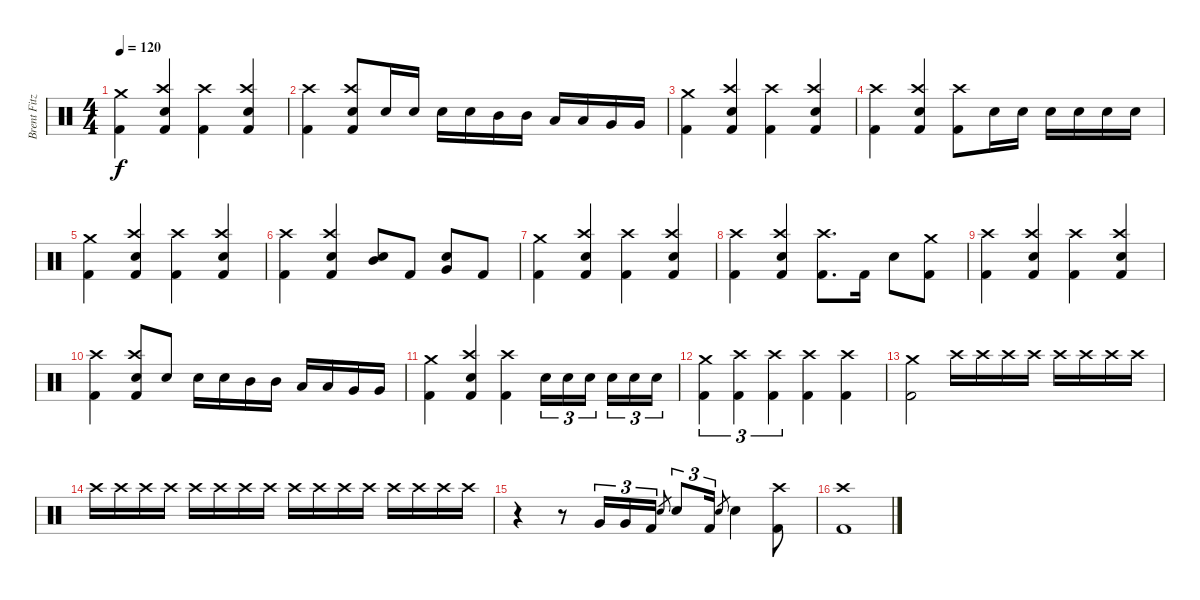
\track ("Brent Fitz" "Brent Fitz") {instrument percussion}
\staff {score}
\articulation defaults
\ts (4 4)
\tempo 120
\clef neutral
\ks c
("Crash medium (hit)" "Kick (hit) 2").4{dy f} ("Crash high (hit)" "Electric Snare (hit)" "Kick (hit) 2").4 ("Crash high (hit)" "Kick (hit) 2").4 ("Crash high (hit)" "Electric Snare (hit)" "Kick (hit) 2").4 |
("Crash high (hit)" "Kick (hit) 2").4 ("Crash high (hit)" "Electric Snare (hit)" "Kick (hit) 2").8 "Electric Snare (hit)".16 "Electric Snare (hit)".16 "Electric Snare (hit)".16 "Electric Snare (hit)".16 "Mid Tom (hit)".16 "Mid Tom (hit)".16 "Low Tom (hit)".16 "Low Tom (hit)".16 "Very Low Tom (hit)".16 "Very Low Tom (hit)".16 |
("Crash medium (hit)" "Kick (hit) 2").4 ("Crash high (hit)" "Electric Snare (hit)" "Kick (hit) 2").4 ("Crash high (hit)" "Kick (hit) 2").4 ("Crash high (hit)" "Electric Snare (hit)" "Kick (hit) 2").4 |
("Crash high (hit)" "Kick (hit) 2").4 ("Crash high (hit)" "Electric Snare (hit)" "Kick (hit) 2").4 ("Crash high (hit)" "Kick (hit) 2").8 "Electric Snare (hit)".16 "Electric Snare (hit)".16 "Electric Snare (hit)".16 "Electric Snare (hit)".16 "Electric Snare (hit)".16 "Electric Snare (hit)".16 |
("Crash medium (hit)" "Kick (hit) 2").4 ("Crash high (hit)" "Electric Snare (hit)" "Kick (hit) 2").4 ("Crash high (hit)" "Kick (hit) 2").4 ("Crash high (hit)" "Electric Snare (hit)" "Kick (hit) 2").4 |
("Crash high (hit)" "Kick (hit) 2").4 ("Crash high (hit)" "Electric Snare (hit)" "Kick (hit) 2").4 ("Mid Tom (hit)" "Electric Snare (hit)").8 "Kick (hit) 2".8 ("Electric Snare (hit)" "Very Low Tom (hit)").8 "Kick (hit) 2".8 |
("Crash medium (hit)" "Kick (hit) 2").4 ("Crash high (hit)" "Electric Snare (hit)" "Kick (hit) 2").4 ("Crash high (hit)" "Kick (hit) 2").4 ("Crash high (hit)" "Electric Snare (hit)" "Kick (hit) 2").4 |
("Crash high (hit)" "Kick (hit) 2").4 ("Crash high (hit)" "Electric Snare (hit)" "Kick (hit) 2").4 ("Crash high (hit)" "Kick (hit) 2").8{d} "Kick (hit) 2".16 "Electric Snare (hit)".8 ("Crash medium (hit)" "Kick (hit) 2").8 |
("Crash high (hit)" "Kick (hit) 2").4 ("Crash high (hit)" "Electric Snare (hit)" "Kick (hit) 2").4 ("Crash high (hit)" "Kick (hit) 2").4 ("Crash high (hit)" "Electric Snare (hit)" "Kick (hit) 2").4 |
("Crash high (hit)" "Kick (hit) 2").4 ("Crash high (hit)" "Electric Snare (hit)" "Kick (hit) 2").8 "Electric Snare (hit)".8 "Electric Snare (hit)".16 "Electric Snare (hit)".16 "Mid Tom (hit)".16 "Mid Tom (hit)".16 "Low Tom (hit)".16 "Low Tom (hit)".16 "Very Low Tom (hit)".16 "Very Low Tom (hit)".16 |
("Crash medium (hit)" "Kick (hit) 2").4 ("Crash high (hit)" "Electric Snare (hit)" "Kick (hit) 2").4 ("Crash high (hit)" "Kick (hit) 2").4 "Electric Snare (hit)".16{tu (3 2)} "Electric Snare (hit)".16{tu (3 2)} "Electric Snare (hit)".16{tu (3 2) beam splitsecondary} "Electric Snare (hit)".16{tu (3 2)} "Electric Snare (hit)".16{tu (3 2)} "Electric Snare (hit)".16{tu (3 2)} |
("Crash medium (hit)" "Kick (hit) 2").4{tu (3 2)} ("Crash high (hit)" "Kick (hit) 2").4{tu (3 2)} ("Crash high (hit)" "Kick (hit) 2").4{tu (3 2)} ("Crash high (hit)" "Kick (hit) 2").4 ("Crash high (hit)" "Kick (hit) 2").4 |
("Crash medium (hit)" "Kick (hit) 2").2 "Crash high (hit)".16 "Crash high (hit)".16 "Crash high (hit)".16 "Crash high (hit)".16 "Crash high (hit)".16 "Crash high (hit)".16 "Crash high (hit)".16 "Crash high (hit)".16 |
"Crash high (hit)".16 "Crash high (hit)".16 "Crash high (hit)".16 "Crash high (hit)".16 "Crash high (hit)".16 "Crash high (hit)".16 "Crash high (hit)".16 "Crash high (hit)".16 "Crash high (hit)".16 "Crash high (hit)".16 "Crash high (hit)".16 "Crash high (hit)".16 "Crash high (hit)".16 "Crash high (hit)".16 "Crash high (hit)".16 "Crash high (hit)".16 |
r.4 r.8 "Very Low Tom (hit)".16{tu (3 2)} "Very Low Tom (hit)".16{tu (3 2)} "Kick (hit) 2".16{tu (3 2)} "Electric Snare (hit)".8{gr} "Electric Snare (hit)".8{tu (3 2)} "Kick (hit) 2".16{tu (3 2)} "Electric Snare (hit)".8{gr} "Electric Snare (hit)".4 ("Crash high (hit)" "Kick (hit) 2").8 |
("Crash high (hit)" "Kick (hit) 2").1
